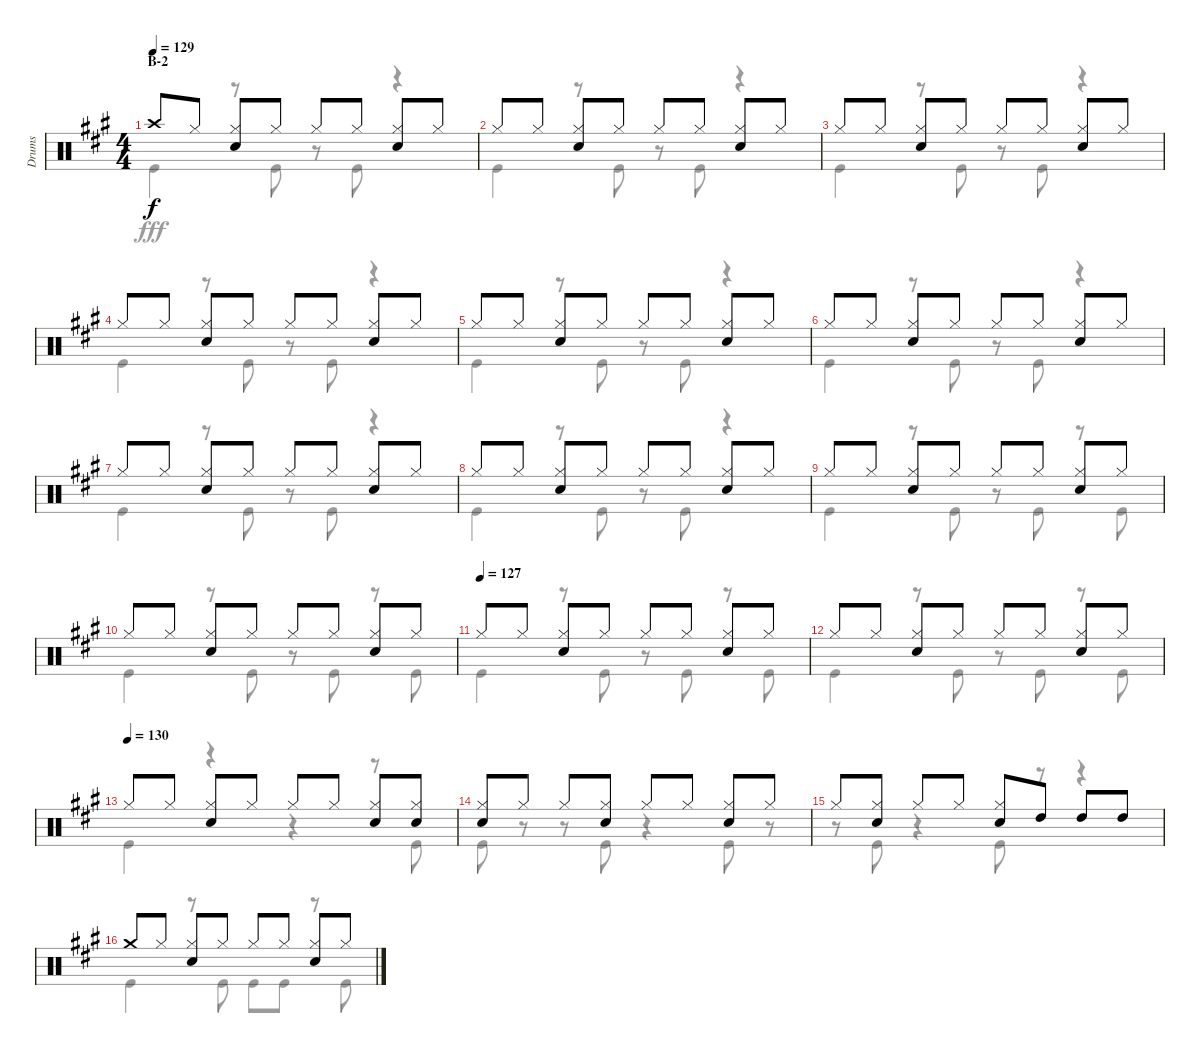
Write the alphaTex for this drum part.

\track ("Drums" "Drums") {instrument percussion}
\staff {score}
\articulation defaults
\voice
\ts (4 4)
\section ("" "B-2")
\tempo 129
\clef neutral
\ks a "Crash high (hit)".8{dy f} "Hi-Hat (closed)".8
("Hi-Hat (closed)" "Snare (hit) 2").8 "Hi-Hat (closed)".8 "Hi-Hat (closed)".8 "Hi-Hat (closed)".8 ("Hi-Hat (closed)" "Snare (hit) 2").8 "Hi-Hat (closed)".8 |
"Hi-Hat (closed)".8 "Hi-Hat (closed)".8 ("Hi-Hat (closed)" "Snare (hit) 2").8 "Hi-Hat (closed)".8 "Hi-Hat (closed)".8 "Hi-Hat (closed)".8 ("Hi-Hat (closed)" "Snare (hit) 2").8 "Hi-Hat (closed)".8 |
"Hi-Hat (closed)".8 "Hi-Hat (closed)".8 ("Hi-Hat (closed)" "Snare (hit) 2").8 "Hi-Hat (closed)".8 "Hi-Hat (closed)".8 "Hi-Hat (closed)".8 ("Hi-Hat (closed)" "Snare (hit) 2").8 "Hi-Hat (closed)".8 |
"Hi-Hat (closed)".8 "Hi-Hat (closed)".8 ("Hi-Hat (closed)" "Snare (hit) 2").8 "Hi-Hat (closed)".8 "Hi-Hat (closed)".8 "Hi-Hat (closed)".8 ("Hi-Hat (closed)" "Snare (hit) 2").8 "Hi-Hat (closed)".8 |
"Hi-Hat (closed)".8 "Hi-Hat (closed)".8 ("Hi-Hat (closed)" "Snare (hit) 2").8 "Hi-Hat (closed)".8 "Hi-Hat (closed)".8 "Hi-Hat (closed)".8 ("Hi-Hat (closed)" "Snare (hit) 2").8 "Hi-Hat (closed)".8 |
"Hi-Hat (closed)".8 "Hi-Hat (closed)".8 ("Hi-Hat (closed)" "Snare (hit) 2").8 "Hi-Hat (closed)".8 "Hi-Hat (closed)".8 "Hi-Hat (closed)".8 ("Hi-Hat (closed)" "Snare (hit) 2").8 "Hi-Hat (closed)".8 |
"Hi-Hat (closed)".8 "Hi-Hat (closed)".8 ("Hi-Hat (closed)" "Snare (hit) 2").8 "Hi-Hat (closed)".8 "Hi-Hat (closed)".8 "Hi-Hat (closed)".8 ("Hi-Hat (closed)" "Snare (hit) 2").8 "Hi-Hat (closed)".8 |
"Hi-Hat (closed)".8 "Hi-Hat (closed)".8 ("Hi-Hat (closed)" "Snare (hit) 2").8 "Hi-Hat (closed)".8 "Hi-Hat (closed)".8 "Hi-Hat (closed)".8 ("Hi-Hat (closed)" "Snare (hit) 2").8 "Hi-Hat (closed)".8 |
"Hi-Hat (closed)".8 "Hi-Hat (closed)".8 ("Hi-Hat (closed)" "Snare (hit) 2").8 "Hi-Hat (closed)".8 "Hi-Hat (closed)".8 "Hi-Hat (closed)".8 ("Hi-Hat (closed)" "Snare (hit) 2").8 "Hi-Hat (closed)".8 |
"Hi-Hat (closed)".8 "Hi-Hat (closed)".8 ("Hi-Hat (closed)" "Snare (hit) 2").8 "Hi-Hat (closed)".8 "Hi-Hat (closed)".8 "Hi-Hat (closed)".8 ("Hi-Hat (closed)" "Snare (hit) 2").8 "Hi-Hat (closed)".8 |
\tempo (127)
"Hi-Hat (closed)".8 "Hi-Hat (closed)".8 ("Hi-Hat (closed)" "Snare (hit) 2").8 "Hi-Hat (closed)".8 "Hi-Hat (closed)".8 "Hi-Hat (closed)".8 ("Hi-Hat (closed)" "Snare (hit) 2").8 "Hi-Hat (closed)".8 |
"Hi-Hat (closed)".8 "Hi-Hat (closed)".8 ("Hi-Hat (closed)" "Snare (hit) 2").8 "Hi-Hat (closed)".8 "Hi-Hat (closed)".8 "Hi-Hat (closed)".8 ("Hi-Hat (closed)" "Snare (hit) 2").8 "Hi-Hat (closed)".8 |
\tempo (130)
"Hi-Hat (closed)".8 "Hi-Hat (closed)".8 ("Hi-Hat (closed)" "Snare (hit) 2").8 "Hi-Hat (closed)".8 "Hi-Hat (closed)".8 "Hi-Hat (closed)".8 ("Hi-Hat (closed)" "Snare (hit) 2").8 ("Hi-Hat (closed)" "Snare (hit) 2").8 |
("Hi-Hat (closed)" "Snare (hit) 2").8 "Hi-Hat (closed)".8 "Hi-Hat (closed)".8 ("Hi-Hat (closed)" "Snare (hit) 2").8 "Hi-Hat (closed)".8 "Hi-Hat (closed)".8 ("Hi-Hat (closed)" "Snare (hit) 2").8 "Hi-Hat (closed)".8 |
"Hi-Hat (closed)".8 ("Hi-Hat (closed)" "Snare (hit) 2").8 "Hi-Hat (closed)".8 "Hi-Hat (closed)".8 ("Hi-Hat (closed)" "Snare (hit) 2").8 "High Tom (hit)".8 "High Tom (hit)".8 "High Tom (hit)".8 |
"Crash medium (hit)".8 "Hi-Hat (closed)".8 ("Hi-Hat (closed)" "Snare (hit) 2").8 "Hi-Hat (closed)".8 "Hi-Hat (closed)".8 "Hi-Hat (closed)".8 ("Hi-Hat (closed)" "Snare (hit) 2").8 "Hi-Hat (closed)".8
\voice
\clef neutral
\ottava regular
\simile none
\ks a "Kick (hit)".4{dy fff}
r.8 "Kick (hit)".8 r.8 "Kick (hit)".8 r.4 |
"Kick (hit)".4 r.8 "Kick (hit)".8 r.8 "Kick (hit)".8 r.4 |
"Kick (hit)".4 r.8 "Kick (hit)".8 r.8 "Kick (hit)".8 r.4 |
"Kick (hit)".4 r.8 "Kick (hit)".8 r.8 "Kick (hit)".8 r.4 |
"Kick (hit)".4 r.8 "Kick (hit)".8 r.8 "Kick (hit)".8 r.4 |
"Kick (hit)".4 r.8 "Kick (hit)".8 r.8 "Kick (hit)".8 r.4 |
"Kick (hit)".4 r.8 "Kick (hit)".8 r.8 "Kick (hit)".8 r.4 |
"Kick (hit)".4 r.8 "Kick (hit)".8 r.8 "Kick (hit)".8 r.4 |
"Kick (hit)".4 r.8 "Kick (hit)".8 r.8 "Kick (hit)".8 r.8 "Kick (hit)".8 |
"Kick (hit)".4 r.8 "Kick (hit)".8 r.8 "Kick (hit)".8 r.8 "Kick (hit)".8 |
"Kick (hit)".4 r.8 "Kick (hit)".8 r.8 "Kick (hit)".8 r.8 "Kick (hit)".8 |
"Kick (hit)".4 r.8 "Kick (hit)".8 r.8 "Kick (hit)".8 r.8 "Kick (hit)".8 |
"Kick (hit)".4 r.4 r.4 r.8 "Kick (hit)".8 |
"Kick (hit)".8 r.8 r.8 "Kick (hit)".8 r.4 "Kick (hit)".8 r.8 |
r.8 "Kick (hit)".8 r.4 "Kick (hit)".8 r.8 r.4 |
"Kick (hit)".4 r.8 "Kick (hit)".8 "Kick (hit)".8 "Kick (hit)".8 r.8 "Kick (hit)".8
